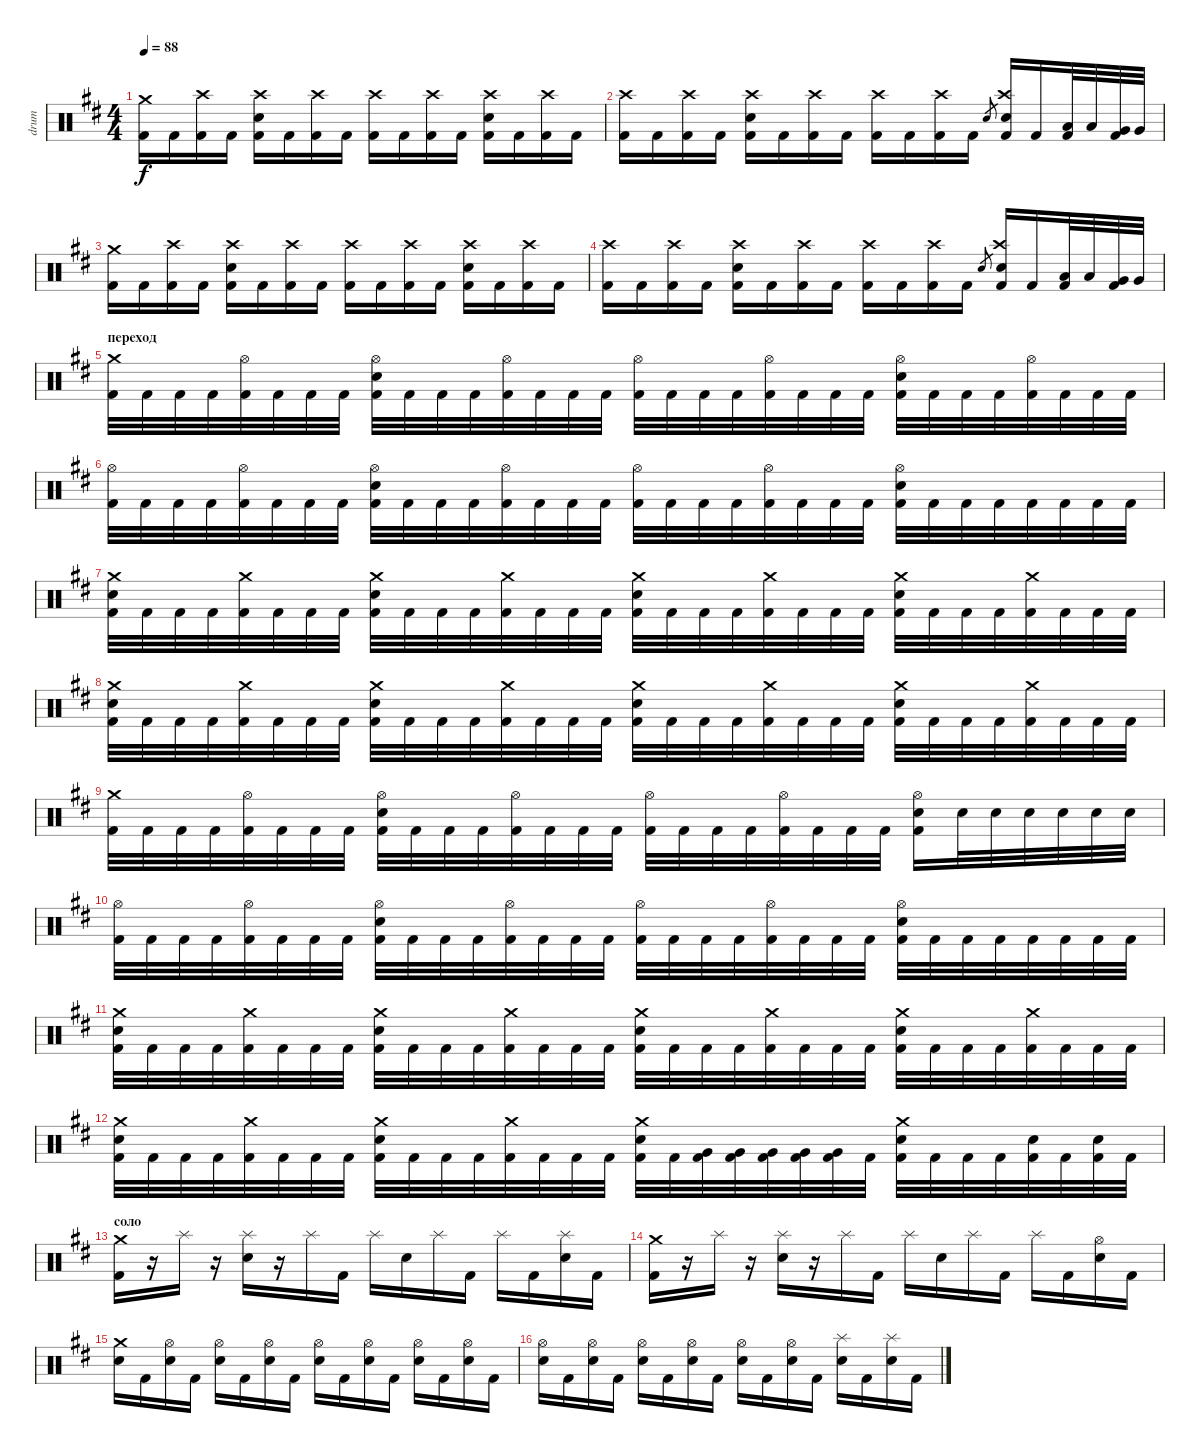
\track ("drum" "drum") {instrument percussion}
\staff {score}
\articulation defaults
\ts (4 4)
\tempo 88
\clef neutral
\ks bminor
("Crash medium (hit)" "Kick (hit) 2").16{dy f} "Kick (hit) 2".16 ("Crash high (hit)" "Kick (hit) 2").16 "Kick (hit) 2".16 ("Crash high (hit)" "Electric Snare (hit)" "Kick (hit) 2").16 "Kick (hit) 2".16 ("Crash high (hit)" "Kick (hit) 2").16 "Kick (hit) 2".16 ("Crash high (hit)" "Kick (hit) 2").16 "Kick (hit) 2".16 ("Crash high (hit)" "Kick (hit) 2").16 "Kick (hit) 2".16 ("Crash high (hit)" "Electric Snare (hit)" "Kick (hit) 2").16 "Kick (hit) 2".16 ("Crash high (hit)" "Kick (hit) 2").16 "Kick (hit) 2".16 |
("Crash high (hit)" "Kick (hit) 2").16 "Kick (hit) 2".16 ("Crash high (hit)" "Kick (hit) 2").16 "Kick (hit) 2".16 ("Crash high (hit)" "Electric Snare (hit)" "Kick (hit) 2").16 "Kick (hit) 2".16 ("Crash high (hit)" "Kick (hit) 2").16 "Kick (hit) 2".16 ("Crash high (hit)" "Kick (hit) 2").16 "Kick (hit) 2".16 ("Crash high (hit)" "Kick (hit) 2").16 "Kick (hit) 2".16 "Electric Snare (hit)".8{gr} ("Crash high (hit)" "Electric Snare (hit)" "Kick (hit) 2").16 "Kick (hit) 2".16 ("Low Tom (hit)" "Kick (hit) 2").32 "Low Tom (hit)".32 ("Very Low Tom (hit)" "Kick (hit) 2").32 "Very Low Tom (hit)".32 |
("Crash medium (hit)" "Kick (hit) 2").16 "Kick (hit) 2".16 ("Crash high (hit)" "Kick (hit) 2").16 "Kick (hit) 2".16 ("Crash high (hit)" "Electric Snare (hit)" "Kick (hit) 2").16 "Kick (hit) 2".16 ("Crash high (hit)" "Kick (hit) 2").16 "Kick (hit) 2".16 ("Crash high (hit)" "Kick (hit) 2").16 "Kick (hit) 2".16 ("Crash high (hit)" "Kick (hit) 2").16 "Kick (hit) 2".16 ("Crash high (hit)" "Electric Snare (hit)" "Kick (hit) 2").16 "Kick (hit) 2".16 ("Crash high (hit)" "Kick (hit) 2").16 "Kick (hit) 2".16 |
("Crash high (hit)" "Kick (hit) 2").16 "Kick (hit) 2".16 ("Crash high (hit)" "Kick (hit) 2").16 "Kick (hit) 2".16 ("Crash high (hit)" "Electric Snare (hit)" "Kick (hit) 2").16 "Kick (hit) 2".16 ("Crash high (hit)" "Kick (hit) 2").16 "Kick (hit) 2".16 ("Crash high (hit)" "Kick (hit) 2").16 "Kick (hit) 2".16 ("Crash high (hit)" "Kick (hit) 2").16 "Kick (hit) 2".16 "Electric Snare (hit)".8{gr} ("Crash high (hit)" "Electric Snare (hit)" "Kick (hit) 2").16 "Kick (hit) 2".16 ("Low Tom (hit)" "Kick (hit) 2").32 "Low Tom (hit)".32 ("Very Low Tom (hit)" "Kick (hit) 2").32 "Very Low Tom (hit)".32 |
\section ("" "переход")
("Crash medium (hit)" "Kick (hit) 2").32 "Kick (hit) 2".32 "Kick (hit) 2".32 "Kick (hit) 2".32 ("Hi-Hat (open)" "Kick (hit) 2").32 "Kick (hit) 2".32 "Kick (hit) 2".32 "Kick (hit) 2".32 ("Hi-Hat (open)" "Electric Snare (hit)" "Kick (hit) 2").32 "Kick (hit) 2".32 "Kick (hit) 2".32 "Kick (hit) 2".32 ("Hi-Hat (open)" "Kick (hit) 2").32 "Kick (hit) 2".32 "Kick (hit) 2".32 "Kick (hit) 2".32 ("Hi-Hat (open)" "Kick (hit) 2").32 "Kick (hit) 2".32 "Kick (hit) 2".32 "Kick (hit) 2".32 ("Hi-Hat (open)" "Kick (hit) 2").32 "Kick (hit) 2".32 "Kick (hit) 2".32 "Kick (hit) 2".32 ("Hi-Hat (open)" "Electric Snare (hit)" "Kick (hit) 2").32 "Kick (hit) 2".32 "Kick (hit) 2".32 "Kick (hit) 2".32 ("Hi-Hat (open)" "Kick (hit) 2").32 "Kick (hit) 2".32 "Kick (hit) 2".32 "Kick (hit) 2".32 |
("Hi-Hat (open)" "Kick (hit) 2").32 "Kick (hit) 2".32 "Kick (hit) 2".32 "Kick (hit) 2".32 ("Hi-Hat (open)" "Kick (hit) 2").32 "Kick (hit) 2".32 "Kick (hit) 2".32 "Kick (hit) 2".32 ("Hi-Hat (open)" "Electric Snare (hit)" "Kick (hit) 2").32 "Kick (hit) 2".32 "Kick (hit) 2".32 "Kick (hit) 2".32 ("Hi-Hat (open)" "Kick (hit) 2").32 "Kick (hit) 2".32 "Kick (hit) 2".32 "Kick (hit) 2".32 ("Hi-Hat (open)" "Kick (hit) 2").32 "Kick (hit) 2".32 "Kick (hit) 2".32 "Kick (hit) 2".32 ("Hi-Hat (open)" "Kick (hit) 2").32 "Kick (hit) 2".32 "Kick (hit) 2".32 "Kick (hit) 2".32 ("Hi-Hat (open)" "Electric Snare (hit)" "Kick (hit) 2").32 "Kick (hit) 2".32 "Kick (hit) 2".32 "Kick (hit) 2".32 "Kick (hit) 2".32 "Kick (hit) 2".32 "Kick (hit) 2".32 "Kick (hit) 2".32 |
("Crash medium (hit)" "Electric Snare (hit)" "Kick (hit) 2").32 "Kick (hit) 2".32 "Kick (hit) 2".32 "Kick (hit) 2".32 ("Crash medium (hit)" "Kick (hit) 2").32 "Kick (hit) 2".32 "Kick (hit) 2".32 "Kick (hit) 2".32 ("Crash medium (hit)" "Electric Snare (hit)" "Kick (hit) 2").32 "Kick (hit) 2".32 "Kick (hit) 2".32 "Kick (hit) 2".32 ("Crash medium (hit)" "Kick (hit) 2").32 "Kick (hit) 2".32 "Kick (hit) 2".32 "Kick (hit) 2".32 ("Crash medium (hit)" "Electric Snare (hit)" "Kick (hit) 2").32 "Kick (hit) 2".32 "Kick (hit) 2".32 "Kick (hit) 2".32 ("Crash medium (hit)" "Kick (hit) 2").32 "Kick (hit) 2".32 "Kick (hit) 2".32 "Kick (hit) 2".32 ("Crash medium (hit)" "Electric Snare (hit)" "Kick (hit) 2").32 "Kick (hit) 2".32 "Kick (hit) 2".32 "Kick (hit) 2".32 ("Crash medium (hit)" "Kick (hit) 2").32 "Kick (hit) 2".32 "Kick (hit) 2".32 "Kick (hit) 2".32 |
("Crash medium (hit)" "Electric Snare (hit)" "Kick (hit) 2").32 "Kick (hit) 2".32 "Kick (hit) 2".32 "Kick (hit) 2".32 ("Crash medium (hit)" "Kick (hit) 2").32 "Kick (hit) 2".32 "Kick (hit) 2".32 "Kick (hit) 2".32 ("Crash medium (hit)" "Electric Snare (hit)" "Kick (hit) 2").32 "Kick (hit) 2".32 "Kick (hit) 2".32 "Kick (hit) 2".32 ("Crash medium (hit)" "Kick (hit) 2").32 "Kick (hit) 2".32 "Kick (hit) 2".32 "Kick (hit) 2".32 ("Crash medium (hit)" "Electric Snare (hit)" "Kick (hit) 2").32 "Kick (hit) 2".32 "Kick (hit) 2".32 "Kick (hit) 2".32 ("Crash medium (hit)" "Kick (hit) 2").32 "Kick (hit) 2".32 "Kick (hit) 2".32 "Kick (hit) 2".32 ("Crash medium (hit)" "Electric Snare (hit)" "Kick (hit) 2").32 "Kick (hit) 2".32 "Kick (hit) 2".32 "Kick (hit) 2".32 ("Crash medium (hit)" "Kick (hit) 2").32 "Kick (hit) 2".32 "Kick (hit) 2".32 "Kick (hit) 2".32 |
("Crash medium (hit)" "Kick (hit) 2").32 "Kick (hit) 2".32 "Kick (hit) 2".32 "Kick (hit) 2".32 ("Hi-Hat (open)" "Kick (hit) 2").32 "Kick (hit) 2".32 "Kick (hit) 2".32 "Kick (hit) 2".32 ("Hi-Hat (open)" "Electric Snare (hit)" "Kick (hit) 2").32 "Kick (hit) 2".32 "Kick (hit) 2".32 "Kick (hit) 2".32 ("Hi-Hat (open)" "Kick (hit) 2").32 "Kick (hit) 2".32 "Kick (hit) 2".32 "Kick (hit) 2".32 ("Hi-Hat (open)" "Kick (hit) 2").32 "Kick (hit) 2".32 "Kick (hit) 2".32 "Kick (hit) 2".32 ("Hi-Hat (open)" "Kick (hit) 2").32 "Kick (hit) 2".32 "Kick (hit) 2".32 "Kick (hit) 2".32 ("Hi-Hat (open)" "Electric Snare (hit)" "Kick (hit) 2").16 "Electric Snare (hit)".32 "Electric Snare (hit)".32 "Electric Snare (hit)".32 "Electric Snare (hit)".32 "Electric Snare (hit)".32 "Electric Snare (hit)".32 |
("Hi-Hat (open)" "Kick (hit) 2").32 "Kick (hit) 2".32 "Kick (hit) 2".32 "Kick (hit) 2".32 ("Hi-Hat (open)" "Kick (hit) 2").32 "Kick (hit) 2".32 "Kick (hit) 2".32 "Kick (hit) 2".32 ("Hi-Hat (open)" "Electric Snare (hit)" "Kick (hit) 2").32 "Kick (hit) 2".32 "Kick (hit) 2".32 "Kick (hit) 2".32 ("Hi-Hat (open)" "Kick (hit) 2").32 "Kick (hit) 2".32 "Kick (hit) 2".32 "Kick (hit) 2".32 ("Hi-Hat (open)" "Kick (hit) 2").32 "Kick (hit) 2".32 "Kick (hit) 2".32 "Kick (hit) 2".32 ("Hi-Hat (open)" "Kick (hit) 2").32 "Kick (hit) 2".32 "Kick (hit) 2".32 "Kick (hit) 2".32 ("Hi-Hat (open)" "Electric Snare (hit)" "Kick (hit) 2").32 "Kick (hit) 2".32 "Kick (hit) 2".32 "Kick (hit) 2".32 "Kick (hit) 2".32 "Kick (hit) 2".32 "Kick (hit) 2".32 "Kick (hit) 2".32 |
("Crash medium (hit)" "Electric Snare (hit)" "Kick (hit) 2").32 "Kick (hit) 2".32 "Kick (hit) 2".32 "Kick (hit) 2".32 ("Crash medium (hit)" "Kick (hit) 2").32 "Kick (hit) 2".32 "Kick (hit) 2".32 "Kick (hit) 2".32 ("Crash medium (hit)" "Electric Snare (hit)" "Kick (hit) 2").32 "Kick (hit) 2".32 "Kick (hit) 2".32 "Kick (hit) 2".32 ("Crash medium (hit)" "Kick (hit) 2").32 "Kick (hit) 2".32 "Kick (hit) 2".32 "Kick (hit) 2".32 ("Crash medium (hit)" "Electric Snare (hit)" "Kick (hit) 2").32 "Kick (hit) 2".32 "Kick (hit) 2".32 "Kick (hit) 2".32 ("Crash medium (hit)" "Kick (hit) 2").32 "Kick (hit) 2".32 "Kick (hit) 2".32 "Kick (hit) 2".32 ("Crash medium (hit)" "Electric Snare (hit)" "Kick (hit) 2").32 "Kick (hit) 2".32 "Kick (hit) 2".32 "Kick (hit) 2".32 ("Crash medium (hit)" "Kick (hit) 2").32 "Kick (hit) 2".32 "Kick (hit) 2".32 "Kick (hit) 2".32 |
("Crash medium (hit)" "Electric Snare (hit)" "Kick (hit) 2").32 "Kick (hit) 2".32 "Kick (hit) 2".32 "Kick (hit) 2".32 ("Crash medium (hit)" "Kick (hit) 2").32 "Kick (hit) 2".32 "Kick (hit) 2".32 "Kick (hit) 2".32 ("Crash medium (hit)" "Electric Snare (hit)" "Kick (hit) 2").32 "Kick (hit) 2".32 "Kick (hit) 2".32 "Kick (hit) 2".32 ("Crash medium (hit)" "Kick (hit) 2").32 "Kick (hit) 2".32 "Kick (hit) 2".32 "Kick (hit) 2".32 ("Crash medium (hit)" "Electric Snare (hit)" "Kick (hit) 2").32 "Kick (hit) 2".32 ("Very Low Tom (hit)" "Kick (hit) 2").32 ("Very Low Tom (hit)" "Kick (hit) 2").32 ("Very Low Tom (hit)" "Kick (hit) 2").32 ("Very Low Tom (hit)" "Kick (hit) 2").32 ("Very Low Tom (hit)" "Kick (hit) 2").32 "Kick (hit) 2".32 ("Crash medium (hit)" "Electric Snare (hit)" "Kick (hit) 2").32 "Kick (hit) 2".32 "Kick (hit) 2".32 "Kick (hit) 2".32 ("Electric Snare (hit)" "Kick (hit) 2").32 "Kick (hit) 2".32 ("Electric Snare (hit)" "Kick (hit) 2").32 "Kick (hit) 2".32 |
\section ("" "соло")
("Crash medium (hit)" "Kick (hit) 2").16 r.16 "Splash (hit)".16 r.16 ("Splash (hit)" "Electric Snare (hit)").16 r.16 "Splash (hit)".16 "Kick (hit) 2".16 "Splash (hit)".16 "Electric Snare (hit)".16 "Splash (hit)".16 "Kick (hit) 2".16 "Splash (hit)".16 "Kick (hit) 2".16 ("Splash (hit)" "Electric Snare (hit)").16 "Kick (hit) 2".16 |
("Crash medium (hit)" "Kick (hit) 2").16 r.16 "Splash (hit)".16 r.16 ("Splash (hit)" "Electric Snare (hit)").16 r.16 "Splash (hit)".16 "Kick (hit) 2".16 "Splash (hit)".16 "Electric Snare (hit)".16 "Splash (hit)".16 "Kick (hit) 2".16 "Splash (hit)".16 "Kick (hit) 2".16 ("Hi-Hat (open)" "Electric Snare (hit)").16 "Kick (hit) 2".16 |
("Crash medium (hit)" "Electric Snare (hit)").16 "Kick (hit) 2".16 ("Hi-Hat (open)" "Electric Snare (hit)").16 "Kick (hit) 2".16 ("Hi-Hat (open)" "Electric Snare (hit)").16 "Kick (hit) 2".16 ("Hi-Hat (open)" "Electric Snare (hit)").16 "Kick (hit) 2".16 ("Hi-Hat (open)" "Electric Snare (hit)").16 "Kick (hit) 2".16 ("Hi-Hat (open)" "Electric Snare (hit)").16 "Kick (hit) 2".16 ("Hi-Hat (open)" "Electric Snare (hit)").16 "Kick (hit) 2".16 ("Hi-Hat (open)" "Electric Snare (hit)").16 "Kick (hit) 2".16 |
("Hi-Hat (open)" "Electric Snare (hit)").16 "Kick (hit) 2".16 ("Hi-Hat (open)" "Electric Snare (hit)").16 "Kick (hit) 2".16 ("Hi-Hat (open)" "Electric Snare (hit)").16 "Kick (hit) 2".16 ("Hi-Hat (open)" "Electric Snare (hit)").16 "Kick (hit) 2".16 ("Hi-Hat (open)" "Electric Snare (hit)").16 "Kick (hit) 2".16 ("Hi-Hat (open)" "Electric Snare (hit)").16 "Kick (hit) 2".16 ("Splash (hit)" "Electric Snare (hit)").16 "Kick (hit) 2".16 ("Splash (hit)" "Electric Snare (hit)").16 "Kick (hit) 2".16
